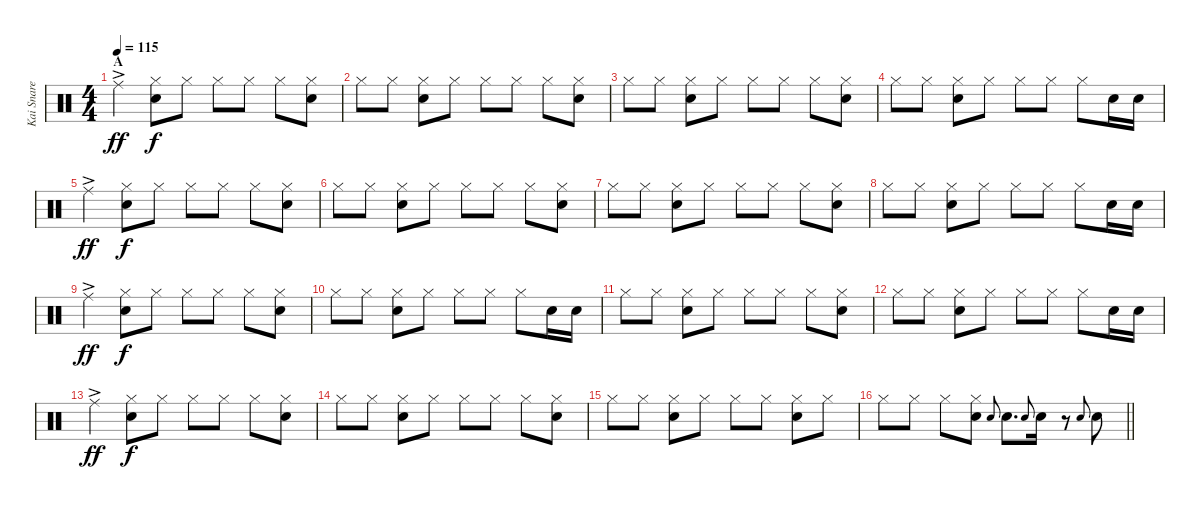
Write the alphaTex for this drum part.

\track ("Kai Snare" "Kai Snare") {instrument percussion}
\staff {score}
\articulation defaults
\ts (4 4)
\section ("" "A")
\tempo 115
\clef neutral
\ks c "Ride (middle)"{ac}.4{dy ff}
("Hi-Hat (closed)" "Snare (hit) 2").8{dy f} "Hi-Hat (closed)".8 "Hi-Hat (closed)".8 "Hi-Hat (closed)".8 "Hi-Hat (closed)".8 ("Hi-Hat (closed)" "Snare (hit) 2").8 |
"Hi-Hat (closed)".8 "Hi-Hat (closed)".8 ("Hi-Hat (closed)" "Snare (hit) 2").8 "Hi-Hat (closed)".8 "Hi-Hat (closed)".8 "Hi-Hat (closed)".8 "Hi-Hat (closed)".8 ("Hi-Hat (closed)" "Snare (hit) 2").8 |
"Hi-Hat (closed)".8 "Hi-Hat (closed)".8 ("Hi-Hat (closed)" "Snare (hit) 2").8 "Hi-Hat (closed)".8 "Hi-Hat (closed)".8 "Hi-Hat (closed)".8 "Hi-Hat (closed)".8 ("Hi-Hat (closed)" "Snare (hit) 2").8 |
"Hi-Hat (closed)".8 "Hi-Hat (closed)".8 ("Hi-Hat (closed)" "Snare (hit) 2").8 "Hi-Hat (closed)".8 "Hi-Hat (closed)".8 "Hi-Hat (closed)".8 "Hi-Hat (closed)".8 "Snare (hit) 2".16 "Snare (hit) 2".16 |
"Ride (middle)"{ac}.4{dy ff} ("Hi-Hat (closed)" "Snare (hit) 2").8{dy f} "Hi-Hat (closed)".8 "Hi-Hat (closed)".8 "Hi-Hat (closed)".8 "Hi-Hat (closed)".8 ("Hi-Hat (closed)" "Snare (hit) 2").8 |
"Hi-Hat (closed)".8 "Hi-Hat (closed)".8 ("Hi-Hat (closed)" "Snare (hit) 2").8 "Hi-Hat (closed)".8 "Hi-Hat (closed)".8 "Hi-Hat (closed)".8 "Hi-Hat (closed)".8 ("Hi-Hat (closed)" "Snare (hit) 2").8 |
"Hi-Hat (closed)".8 "Hi-Hat (closed)".8 ("Hi-Hat (closed)" "Snare (hit) 2").8 "Hi-Hat (closed)".8 "Hi-Hat (closed)".8 "Hi-Hat (closed)".8 "Hi-Hat (closed)".8 ("Hi-Hat (closed)" "Snare (hit) 2").8 |
"Hi-Hat (closed)".8 "Hi-Hat (closed)".8 ("Hi-Hat (closed)" "Snare (hit) 2").8 "Hi-Hat (closed)".8 "Hi-Hat (closed)".8 "Hi-Hat (closed)".8 "Hi-Hat (closed)".8 "Snare (hit) 2".16 "Snare (hit) 2".16 |
"Ride (middle)"{ac}.4{dy ff} ("Hi-Hat (closed)" "Snare (hit) 2").8{dy f} "Hi-Hat (closed)".8 "Hi-Hat (closed)".8 "Hi-Hat (closed)".8 "Hi-Hat (closed)".8 ("Hi-Hat (closed)" "Snare (hit) 2").8 |
"Hi-Hat (closed)".8 "Hi-Hat (closed)".8 ("Hi-Hat (closed)" "Snare (hit) 2").8 "Hi-Hat (closed)".8 "Hi-Hat (closed)".8 "Hi-Hat (closed)".8 "Hi-Hat (closed)".8 "Snare (hit) 2".16 "Snare (hit) 2".16 |
"Hi-Hat (closed)".8 "Hi-Hat (closed)".8 ("Hi-Hat (closed)" "Snare (hit) 2").8 "Hi-Hat (closed)".8 "Hi-Hat (closed)".8 "Hi-Hat (closed)".8 "Hi-Hat (closed)".8 ("Hi-Hat (closed)" "Snare (hit) 2").8 |
"Hi-Hat (closed)".8 "Hi-Hat (closed)".8 ("Hi-Hat (closed)" "Snare (hit) 2").8 "Hi-Hat (closed)".8 "Hi-Hat (closed)".8 "Hi-Hat (closed)".8 "Hi-Hat (closed)".8 "Snare (hit) 2".16 "Snare (hit) 2".16 |
"Ride (middle)"{ac}.4{dy ff} ("Hi-Hat (closed)" "Snare (hit) 2").8{dy f} "Hi-Hat (closed)".8 "Hi-Hat (closed)".8 "Hi-Hat (closed)".8 "Hi-Hat (closed)".8 ("Hi-Hat (closed)" "Snare (hit) 2").8 |
"Hi-Hat (closed)".8 "Hi-Hat (closed)".8 ("Hi-Hat (closed)" "Snare (hit) 2").8 "Hi-Hat (closed)".8 "Hi-Hat (closed)".8 "Hi-Hat (closed)".8 "Hi-Hat (closed)".8 ("Hi-Hat (closed)" "Snare (hit) 2").8 |
"Hi-Hat (closed)".8 "Hi-Hat (closed)".8 ("Hi-Hat (closed)" "Snare (hit) 2").8 "Hi-Hat (closed)".8 "Hi-Hat (closed)".8 "Hi-Hat (closed)".8 ("Hi-Hat (closed)" "Snare (hit) 2").8 "Hi-Hat (closed)".8 |
\barLineRight lightlight "Hi-Hat (closed)".8 "Hi-Hat (closed)".8 "Hi-Hat (closed)".8
("Hi-Hat (closed)" "Snare (hit) 2").8 "Snare (hit) 2".8{gr onbeat} "Snare (hit) 2".8{d} "Snare (hit) 2".8{gr onbeat} "Snare (hit) 2".16 r.8 "Snare (hit) 2".8{gr onbeat} "Snare (hit) 2".8
